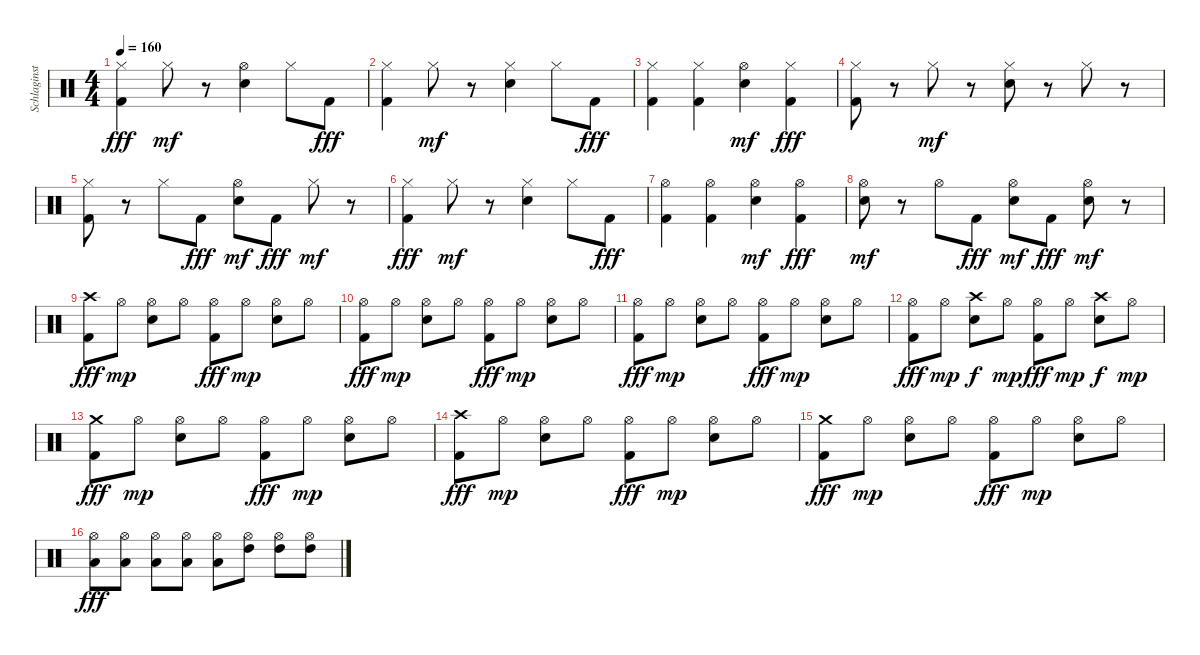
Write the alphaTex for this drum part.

\track ("Schlaginstrumente - Auswahl" "Schlaginst") {instrument percussion}
\staff {score}
\articulation defaults
\ts (4 4)
\tempo 160
\clef neutral
\ks c
("Hi-Hat (closed)" "Kick (hit) 2").4{dy fff} "Hi-Hat (closed)".8{dy mf} r.8 ("Hi-Hat (open)" "Electric Snare (hit)").4 "Hi-Hat (closed)".8 "Kick (hit) 2".8{dy fff} |
("Hi-Hat (closed)" "Kick (hit) 2").4 "Hi-Hat (closed)".8{dy mf} r.8 ("Hi-Hat (closed)" "Electric Snare (hit)").4 "Hi-Hat (closed)".8 "Kick (hit) 2".8{dy fff} |
("Hi-Hat (closed)" "Kick (hit) 2").4 ("Hi-Hat (closed)" "Kick (hit) 2").4 ("Hi-Hat (open)" "Electric Snare (hit)").4{dy mf} ("Hi-Hat (closed)" "Kick (hit) 2").4{dy fff} |
("Hi-Hat (closed)" "Kick (hit) 2").8 r.8 "Hi-Hat (closed)".8{dy mf} r.8 ("Hi-Hat (closed)" "Electric Snare (hit)").8 r.8 "Hi-Hat (closed)".8 r.8 |
("Hi-Hat (closed)" "Kick (hit) 2").8 r.8 "Hi-Hat (closed)".8 "Kick (hit) 2".8{dy fff} ("Hi-Hat (open)" "Electric Snare (hit)").8{dy mf} "Kick (hit) 2".8{dy fff} "Hi-Hat (closed)".8{dy mf} r.8 |
("Hi-Hat (closed)" "Kick (hit) 2").4{dy fff} "Hi-Hat (closed)".8{dy mf} r.8 ("Hi-Hat (closed)" "Electric Snare (hit)").4 "Hi-Hat (closed)".8 "Kick (hit) 2".8{dy fff} |
("Hi-Hat (open)" "Kick (hit) 2").4 ("Hi-Hat (open)" "Kick (hit) 2").4 ("Hi-Hat (open)" "Electric Snare (hit)").4{dy mf} ("Hi-Hat (open)" "Kick (hit) 2").4{dy fff} |
("Hi-Hat (open)" "Electric Snare (hit)").8{dy mf} r.8 "Hi-Hat (open)".8 "Kick (hit) 2".8{dy fff} ("Hi-Hat (open)" "Electric Snare (hit)").8{dy mf} "Kick (hit) 2".8{dy fff} ("Hi-Hat (open)" "Electric Snare (hit)").8{dy mf} r.8 |
("Crash high (hit)" "Kick (hit) 2").8{dy fff} "Hi-Hat (open)".8{dy mp} ("Hi-Hat (open)" "Electric Snare (hit)").8 "Hi-Hat (open)".8 ("Hi-Hat (open)" "Kick (hit) 2").8{dy fff} "Hi-Hat (open)".8{dy mp} ("Hi-Hat (open)" "Electric Snare (hit)").8 "Hi-Hat (open)".8 |
("Hi-Hat (open)" "Kick (hit) 2").8{dy fff} "Hi-Hat (open)".8{dy mp} ("Hi-Hat (open)" "Electric Snare (hit)").8 "Hi-Hat (open)".8 ("Hi-Hat (open)" "Kick (hit) 2").8{dy fff} "Hi-Hat (open)".8{dy mp} ("Hi-Hat (open)" "Electric Snare (hit)").8 "Hi-Hat (open)".8 |
("Hi-Hat (open)" "Kick (hit) 2").8{dy fff} "Hi-Hat (open)".8{dy mp} ("Hi-Hat (open)" "Electric Snare (hit)").8 "Hi-Hat (open)".8 ("Hi-Hat (open)" "Kick (hit) 2").8{dy fff} "Hi-Hat (open)".8{dy mp} ("Hi-Hat (open)" "Electric Snare (hit)").8 "Hi-Hat (open)".8 |
("Hi-Hat (open)" "Kick (hit) 2").8{dy fff} "Hi-Hat (open)".8{dy mp} ("Crash high (hit)" "Electric Snare (hit)").8{dy f} "Hi-Hat (open)".8{dy mp} ("Hi-Hat (open)" "Kick (hit) 2").8{dy fff} "Hi-Hat (open)".8{dy mp} ("Crash high (hit)" "Electric Snare (hit)").8{dy f} "Hi-Hat (open)".8{dy mp} |
("Crash medium (hit)" "Kick (hit) 2").8{dy fff} "Hi-Hat (open)".8{dy mp} ("Hi-Hat (open)" "Electric Snare (hit)").8 "Hi-Hat (open)".8 ("Hi-Hat (open)" "Kick (hit) 2").8{dy fff} "Hi-Hat (open)".8{dy mp} ("Hi-Hat (open)" "Electric Snare (hit)").8 "Hi-Hat (open)".8 |
("Crash high (hit)" "Kick (hit) 2").8{dy fff} "Hi-Hat (open)".8{dy mp} ("Hi-Hat (open)" "Electric Snare (hit)").8 "Hi-Hat (open)".8 ("Hi-Hat (open)" "Kick (hit) 2").8{dy fff} "Hi-Hat (open)".8{dy mp} ("Hi-Hat (open)" "Electric Snare (hit)").8 "Hi-Hat (open)".8 |
("Crash medium (hit)" "Kick (hit) 2").8{dy fff} "Hi-Hat (open)".8{dy mp} ("Hi-Hat (open)" "Electric Snare (hit)").8 "Hi-Hat (open)".8 ("Hi-Hat (open)" "Kick (hit) 2").8{dy fff} "Hi-Hat (open)".8{dy mp} ("Hi-Hat (open)" "Electric Snare (hit)").8 "Hi-Hat (open)".8 |
("Hi-Hat (open)" "Low Floor Tom (hit)").8{dy fff} ("Hi-Hat (open)" "Low Floor Tom (hit)").8 ("Hi-Hat (open)" "Low Floor Tom (hit)").8 ("Hi-Hat (open)" "Low Tom (hit)").8 ("Hi-Hat (open)" "Low Tom (hit)").8 ("Hi-Hat (open)" "High Tom (hit)").8 ("Hi-Hat (open)" "High Tom (hit)").8 ("Hi-Hat (open)" "High Tom (hit)").8
